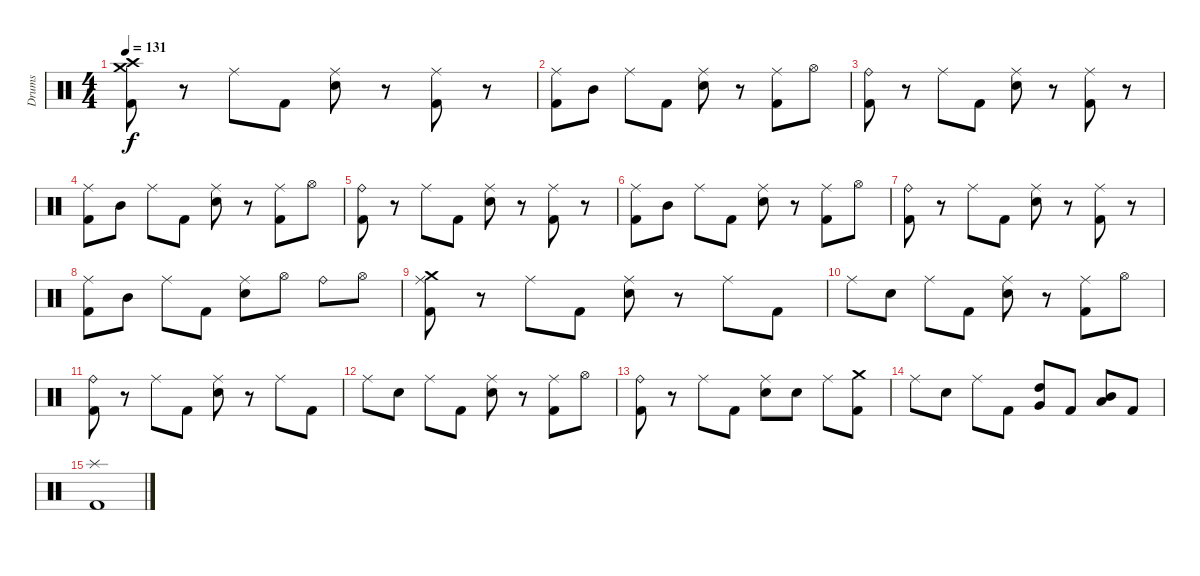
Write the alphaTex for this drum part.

\track ("Drums" "Drums") {instrument percussion}
\staff {score}
\articulation defaults
\ts (4 4)
\tempo 131
\clef neutral
\ks c
("Crash high (hit)" "Crash medium (hit)" "Kick (hit) 2").8{dy f} r.8 "Ride (middle)".8 "Kick (hit) 2".8 ("Ride (middle)" "Electric Snare (hit)").8 r.8 ("Ride (middle)" "Kick (hit) 2").8 r.8 |
("Ride (middle)" "Kick (hit) 2").8 "Mid Tom (hit)".8 "Ride (middle)".8 "Kick (hit) 2".8 ("Ride (middle)" "Electric Snare (hit)").8 r.8 ("Ride (middle)" "Kick (hit) 2").8 "Hi-Hat (open)".8 |
("Ride (bell)" "Kick (hit) 2").8 r.8 "Ride (middle)".8 "Kick (hit) 2".8 ("Ride (middle)" "Electric Snare (hit)").8 r.8 ("Ride (middle)" "Kick (hit) 2").8 r.8 |
("Ride (middle)" "Kick (hit) 2").8 "Mid Tom (hit)".8 "Ride (middle)".8 "Kick (hit) 2".8 ("Ride (middle)" "Electric Snare (hit)").8 r.8 ("Ride (middle)" "Kick (hit) 2").8 "Hi-Hat (open)".8 |
("Ride (bell)" "Kick (hit) 2").8 r.8 "Ride (middle)".8 "Kick (hit) 2".8 ("Ride (middle)" "Electric Snare (hit)").8 r.8 ("Ride (middle)" "Kick (hit) 2").8 r.8 |
("Ride (middle)" "Kick (hit) 2").8 "Mid Tom (hit)".8 "Ride (middle)".8 "Kick (hit) 2".8 ("Ride (middle)" "Electric Snare (hit)").8 r.8 ("Ride (middle)" "Kick (hit) 2").8 "Hi-Hat (open)".8 |
("Ride (bell)" "Kick (hit) 2").8 r.8 "Ride (middle)".8 "Kick (hit) 2".8 ("Ride (middle)" "Electric Snare (hit)").8 r.8 ("Ride (middle)" "Kick (hit) 2").8 r.8 |
("Ride (middle)" "Kick (hit) 2").8 "Mid Tom (hit)".8 "Ride (middle)".8 "Kick (hit) 2".8 ("Ride (middle)" "Electric Snare (hit)").8 "Hi-Hat (open)".8 "Ride (bell)".8 "Hi-Hat (open)".8 |
("Crash medium (hit)" "Ride (middle)" "Kick (hit) 2").8 r.8 "Ride (middle)".8 "Kick (hit) 2".8 ("Ride (middle)" "Electric Snare (hit)").8 r.8 "Ride (middle)".8 "Kick (hit) 2".8 |
"Ride (middle)".8 "Electric Snare (hit)".8 "Ride (middle)".8 "Kick (hit) 2".8 ("Ride (middle)" "Electric Snare (hit)").8 r.8 ("Ride (middle)" "Kick (hit) 2").8 "Hi-Hat (open)".8 |
("Ride (bell)" "Kick (hit) 2").8 r.8 "Ride (middle)".8 "Kick (hit) 2".8 ("Ride (middle)" "Electric Snare (hit)").8 r.8 "Ride (middle)".8 "Kick (hit) 2".8 |
"Ride (middle)".8 "Electric Snare (hit)".8 "Ride (middle)".8 "Kick (hit) 2".8 ("Ride (middle)" "Electric Snare (hit)").8 r.8 ("Ride (middle)" "Kick (hit) 2").8 "Hi-Hat (open)".8 |
("Ride (bell)" "Kick (hit) 2").8 r.8 "Ride (middle)".8 "Kick (hit) 2".8 ("Ride (middle)" "Electric Snare (hit)").8 "Electric Snare (hit)".8 "Ride (middle)".8 ("Crash medium (hit)" "Kick (hit) 2").8 |
"Ride (middle)".8 "Electric Snare (hit)".8 "Ride (middle)".8 "Kick (hit) 2".8 ("Very Low Tom (hit)" "High Tom (hit)").8 "Kick (hit) 2".8 ("Low Floor Tom (hit)" "Mid Tom (hit)").8 "Kick (hit) 2".8 |
("Splash (hit)" "Kick (hit) 2").1
